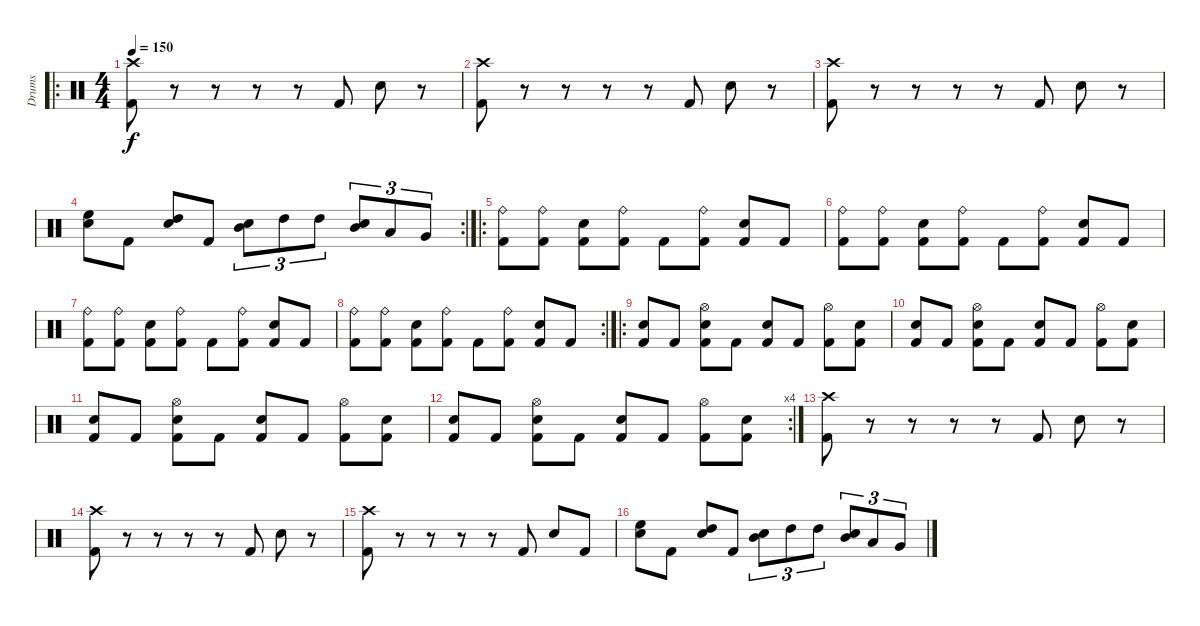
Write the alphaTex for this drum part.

\track ("Drums" "Drums") {instrument percussion}
\staff {score}
\articulation defaults
\ro
\ts (4 4)
\tempo 150
\clef neutral
\ks c
("Crash high (hit)" "Kick (hit) 2").8{dy f} r.8 r.8 r.8 r.8 "Kick (hit) 2".8 "Electric Snare (hit)".8 r.8 |
("Crash high (hit)" "Kick (hit) 2").8 r.8 r.8 r.8 r.8 "Kick (hit) 2".8 "Electric Snare (hit)".8 r.8 |
("Crash high (hit)" "Kick (hit) 2").8 r.8 r.8 r.8 r.8 "Kick (hit) 2".8 "Electric Snare (hit)".8 r.8 |
\rc 2
("Electric Snare (hit)" "High Floor Tom (hit)").8 "Kick (hit) 2".8 ("Electric Snare (hit)" "High Tom (hit)").8 "Kick (hit) 2".8 ("Electric Snare (hit)" "Mid Tom (hit)").8{tu (3 2)} "High Tom (hit)".8{tu (3 2)} "High Tom (hit)".8{tu (3 2)} ("Electric Snare (hit)" "Mid Tom (hit)").8{tu (3 2)} "Low Tom (hit)".8{tu (3 2)} "Very Low Tom (hit)".8{tu (3 2)} |
\ro
("Ride (bell)" "Kick (hit) 2").8 ("Ride (bell)" "Kick (hit) 2").8 ("Electric Snare (hit)" "Kick (hit) 2").8 ("Ride (bell)" "Kick (hit) 2").8 "Kick (hit) 2".8 ("Ride (bell)" "Kick (hit) 2").8 ("Electric Snare (hit)" "Kick (hit) 2").8 "Kick (hit) 2".8 |
("Ride (bell)" "Kick (hit) 2").8 ("Ride (bell)" "Kick (hit) 2").8 ("Electric Snare (hit)" "Kick (hit) 2").8 ("Ride (bell)" "Kick (hit) 2").8 "Kick (hit) 2".8 ("Ride (bell)" "Kick (hit) 2").8 ("Electric Snare (hit)" "Kick (hit) 2").8 "Kick (hit) 2".8 |
("Ride (bell)" "Kick (hit) 2").8 ("Ride (bell)" "Kick (hit) 2").8 ("Electric Snare (hit)" "Kick (hit) 2").8 ("Ride (bell)" "Kick (hit) 2").8 "Kick (hit) 2".8 ("Ride (bell)" "Kick (hit) 2").8 ("Electric Snare (hit)" "Kick (hit) 2").8 "Kick (hit) 2".8 |
\rc 2
("Ride (bell)" "Kick (hit) 2").8 ("Ride (bell)" "Kick (hit) 2").8 ("Electric Snare (hit)" "Kick (hit) 2").8 ("Ride (bell)" "Kick (hit) 2").8 "Kick (hit) 2".8 ("Ride (bell)" "Kick (hit) 2").8 ("Electric Snare (hit)" "Kick (hit) 2").8 "Kick (hit) 2".8 |
\ro
("Electric Snare (hit)" "Kick (hit) 2").8 "Kick (hit) 2".8 ("Electric Snare (hit)" "Hi-Hat (open)" "Kick (hit) 2").8 "Kick (hit) 2".8 ("Electric Snare (hit)" "Kick (hit) 2").8 "Kick (hit) 2".8 ("Hi-Hat (open)" "Kick (hit) 2").8 ("Electric Snare (hit)" "Kick (hit) 2").8 |
("Electric Snare (hit)" "Kick (hit) 2").8 "Kick (hit) 2".8 ("Electric Snare (hit)" "Hi-Hat (open)" "Kick (hit) 2").8 "Kick (hit) 2".8 ("Electric Snare (hit)" "Kick (hit) 2").8 "Kick (hit) 2".8 ("Hi-Hat (open)" "Kick (hit) 2").8 ("Electric Snare (hit)" "Kick (hit) 2").8 |
("Electric Snare (hit)" "Kick (hit) 2").8 "Kick (hit) 2".8 ("Electric Snare (hit)" "Hi-Hat (open)" "Kick (hit) 2").8 "Kick (hit) 2".8 ("Electric Snare (hit)" "Kick (hit) 2").8 "Kick (hit) 2".8 ("Hi-Hat (open)" "Kick (hit) 2").8 ("Electric Snare (hit)" "Kick (hit) 2").8 |
\rc 4
("Electric Snare (hit)" "Kick (hit) 2").8 "Kick (hit) 2".8 ("Electric Snare (hit)" "Hi-Hat (open)" "Kick (hit) 2").8 "Kick (hit) 2".8 ("Electric Snare (hit)" "Kick (hit) 2").8 "Kick (hit) 2".8 ("Hi-Hat (open)" "Kick (hit) 2").8 ("Electric Snare (hit)" "Kick (hit) 2").8 |
("Crash high (hit)" "Kick (hit) 2").8 r.8 r.8 r.8 r.8 "Kick (hit) 2".8 "Electric Snare (hit)".8 r.8 |
("Crash high (hit)" "Kick (hit) 2").8 r.8 r.8 r.8 r.8 "Kick (hit) 2".8 "Electric Snare (hit)".8 r.8 |
("Crash high (hit)" "Kick (hit) 2").8 r.8 r.8 r.8 r.8 "Kick (hit) 2".8 "Electric Snare (hit)".8 "Kick (hit) 2".8 |
("Electric Snare (hit)" "High Floor Tom (hit)").8 "Kick (hit) 2".8 ("Electric Snare (hit)" "High Tom (hit)").8 "Kick (hit) 2".8 ("Electric Snare (hit)" "Mid Tom (hit)").8{tu (3 2)} "High Tom (hit)".8{tu (3 2)} "High Tom (hit)".8{tu (3 2)} ("Electric Snare (hit)" "Mid Tom (hit)").8{tu (3 2)} "Low Tom (hit)".8{tu (3 2)} "Very Low Tom (hit)".8{tu (3 2)}
